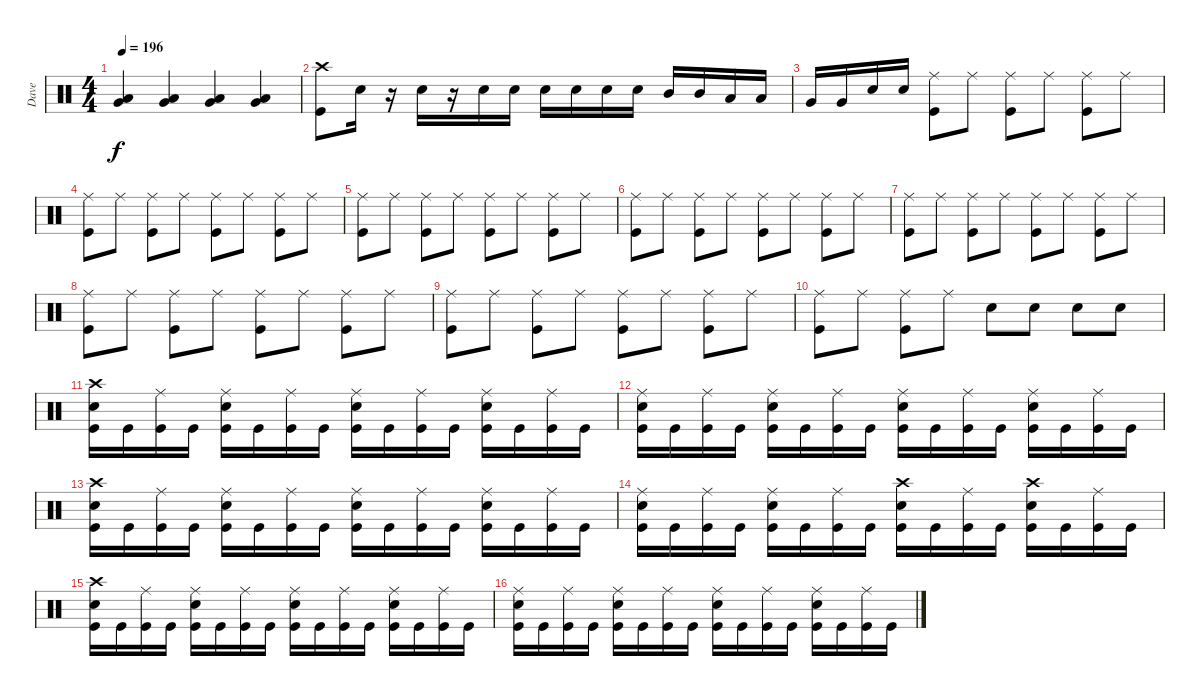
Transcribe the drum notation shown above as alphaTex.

\track ("Dave" "Dave") {instrument percussion}
\staff {score}
\articulation defaults
\ts (4 4)
\tempo 196
\clef neutral
\ks c
("Very Low Tom (hit)" "Low Floor Tom (hit)").4{dy f} ("Very Low Tom (hit)" "Low Floor Tom (hit)").4 ("Very Low Tom (hit)" "Low Floor Tom (hit)").4 ("Very Low Tom (hit)" "Low Floor Tom (hit)").4 |
("Crash high (hit)" "Kick (hit)").8 "Snare (hit) 2".16 r.16 "Snare (hit) 2".16 r.16 "Snare (hit) 2".16 "Snare (hit) 2".16 "Snare (hit) 2".16 "Snare (hit) 2".16 "Snare (hit) 2".16 "Snare (hit) 2".16 "Mid Tom (hit)".16 "Mid Tom (hit)".16 "Low Tom (hit)".16 "Low Tom (hit)".16 |
"Very Low Tom (hit)".16 "Very Low Tom (hit)".16 "Snare (hit) 2".16 "Snare (hit) 2".16 ("Ride (middle)" "Kick (hit)").8 "Ride (middle)".8 ("Ride (middle)" "Kick (hit)").8 "Ride (middle)".8 ("Ride (middle)" "Kick (hit)").8 "Ride (middle)".8 |
("Ride (middle)" "Kick (hit)").8 "Ride (middle)".8 ("Ride (middle)" "Kick (hit)").8 "Ride (middle)".8 ("Ride (middle)" "Kick (hit)").8 "Ride (middle)".8 ("Ride (middle)" "Kick (hit)").8 "Ride (middle)".8 |
("Ride (middle)" "Kick (hit)").8 "Ride (middle)".8 ("Ride (middle)" "Kick (hit)").8 "Ride (middle)".8 ("Ride (middle)" "Kick (hit)").8 "Ride (middle)".8 ("Ride (middle)" "Kick (hit)").8 "Ride (middle)".8 |
("Ride (middle)" "Kick (hit)").8 "Ride (middle)".8 ("Ride (middle)" "Kick (hit)").8 "Ride (middle)".8 ("Ride (middle)" "Kick (hit)").8 "Ride (middle)".8 ("Ride (middle)" "Kick (hit)").8 "Ride (middle)".8 |
("Ride (middle)" "Kick (hit)").8 "Ride (middle)".8 ("Ride (middle)" "Kick (hit)").8 "Ride (middle)".8 ("Ride (middle)" "Kick (hit)").8 "Ride (middle)".8 ("Ride (middle)" "Kick (hit)").8 "Ride (middle)".8 |
("Ride (middle)" "Kick (hit)").8 "Ride (middle)".8 ("Ride (middle)" "Kick (hit)").8 "Ride (middle)".8 ("Ride (middle)" "Kick (hit)").8 "Ride (middle)".8 ("Ride (middle)" "Kick (hit)").8 "Ride (middle)".8 |
("Ride (middle)" "Kick (hit)").8 "Ride (middle)".8 ("Ride (middle)" "Kick (hit)").8 "Ride (middle)".8 ("Ride (middle)" "Kick (hit)").8 "Ride (middle)".8 ("Ride (middle)" "Kick (hit)").8 "Ride (middle)".8 |
("Ride (middle)" "Kick (hit)").8 "Ride (middle)".8 ("Ride (middle)" "Kick (hit)").8 "Ride (middle)".8 "Snare (hit) 2".8 "Snare (hit) 2".8 "Snare (hit) 2".8 "Snare (hit) 2".8 |
("Crash high (hit)" "Snare (hit) 2" "Kick (hit)").16 "Kick (hit)".16 ("Ride (middle)" "Kick (hit)").16 "Kick (hit)".16 ("Ride (middle)" "Snare (hit) 2" "Kick (hit)").16 "Kick (hit)".16 ("Ride (middle)" "Kick (hit)").16 "Kick (hit)".16 ("Ride (middle)" "Snare (hit) 2" "Kick (hit)").16 "Kick (hit)".16 ("Ride (middle)" "Kick (hit)").16 "Kick (hit)".16 ("Ride (middle)" "Snare (hit) 2" "Kick (hit)").16 "Kick (hit)".16 ("Ride (middle)" "Kick (hit)").16 "Kick (hit)".16 |
("Ride (middle)" "Snare (hit) 2" "Kick (hit)").16 "Kick (hit)".16 ("Ride (middle)" "Kick (hit)").16 "Kick (hit)".16 ("Ride (middle)" "Snare (hit) 2" "Kick (hit)").16 "Kick (hit)".16 ("Ride (middle)" "Kick (hit)").16 "Kick (hit)".16 ("Ride (middle)" "Snare (hit) 2" "Kick (hit)").16 "Kick (hit)".16 ("Ride (middle)" "Kick (hit)").16 "Kick (hit)".16 ("Ride (middle)" "Snare (hit) 2" "Kick (hit)").16 "Kick (hit)".16 ("Ride (middle)" "Kick (hit)").16 "Kick (hit)".16 |
("Crash high (hit)" "Snare (hit) 2" "Kick (hit)").16 "Kick (hit)".16 ("Ride (middle)" "Kick (hit)").16 "Kick (hit)".16 ("Ride (middle)" "Snare (hit) 2" "Kick (hit)").16 "Kick (hit)".16 ("Ride (middle)" "Kick (hit)").16 "Kick (hit)".16 ("Ride (middle)" "Snare (hit) 2" "Kick (hit)").16 "Kick (hit)".16 ("Ride (middle)" "Kick (hit)").16 "Kick (hit)".16 ("Ride (middle)" "Snare (hit) 2" "Kick (hit)").16 "Kick (hit)".16 ("Ride (middle)" "Kick (hit)").16 "Kick (hit)".16 |
("Ride (middle)" "Snare (hit) 2" "Kick (hit)").16 "Kick (hit)".16 ("Ride (middle)" "Kick (hit)").16 "Kick (hit)".16 ("Ride (middle)" "Snare (hit) 2" "Kick (hit)").16 "Kick (hit)".16 ("Ride (middle)" "Kick (hit)").16 "Kick (hit)".16 ("Crash high (hit)" "Snare (hit) 2" "Kick (hit)").16 "Kick (hit)".16 ("Ride (middle)" "Kick (hit)").16 "Kick (hit)".16 ("Crash high (hit)" "Snare (hit) 2" "Kick (hit)").16 "Kick (hit)".16 ("Ride (middle)" "Kick (hit)").16 "Kick (hit)".16 |
("Crash high (hit)" "Snare (hit) 2" "Kick (hit)").16 "Kick (hit)".16 ("Ride (middle)" "Kick (hit)").16 "Kick (hit)".16 ("Ride (middle)" "Snare (hit) 2" "Kick (hit)").16 "Kick (hit)".16 ("Ride (middle)" "Kick (hit)").16 "Kick (hit)".16 ("Ride (middle)" "Snare (hit) 2" "Kick (hit)").16 "Kick (hit)".16 ("Ride (middle)" "Kick (hit)").16 "Kick (hit)".16 ("Ride (middle)" "Snare (hit) 2" "Kick (hit)").16 "Kick (hit)".16 ("Ride (middle)" "Kick (hit)").16 "Kick (hit)".16 |
("Ride (middle)" "Snare (hit) 2" "Kick (hit)").16 "Kick (hit)".16 ("Ride (middle)" "Kick (hit)").16 "Kick (hit)".16 ("Ride (middle)" "Snare (hit) 2" "Kick (hit)").16 "Kick (hit)".16 ("Ride (middle)" "Kick (hit)").16 "Kick (hit)".16 ("Ride (middle)" "Snare (hit) 2" "Kick (hit)").16 "Kick (hit)".16 ("Ride (middle)" "Kick (hit)").16 "Kick (hit)".16 ("Ride (middle)" "Snare (hit) 2" "Kick (hit)").16 "Kick (hit)".16 ("Ride (middle)" "Kick (hit)").16 "Kick (hit)".16
